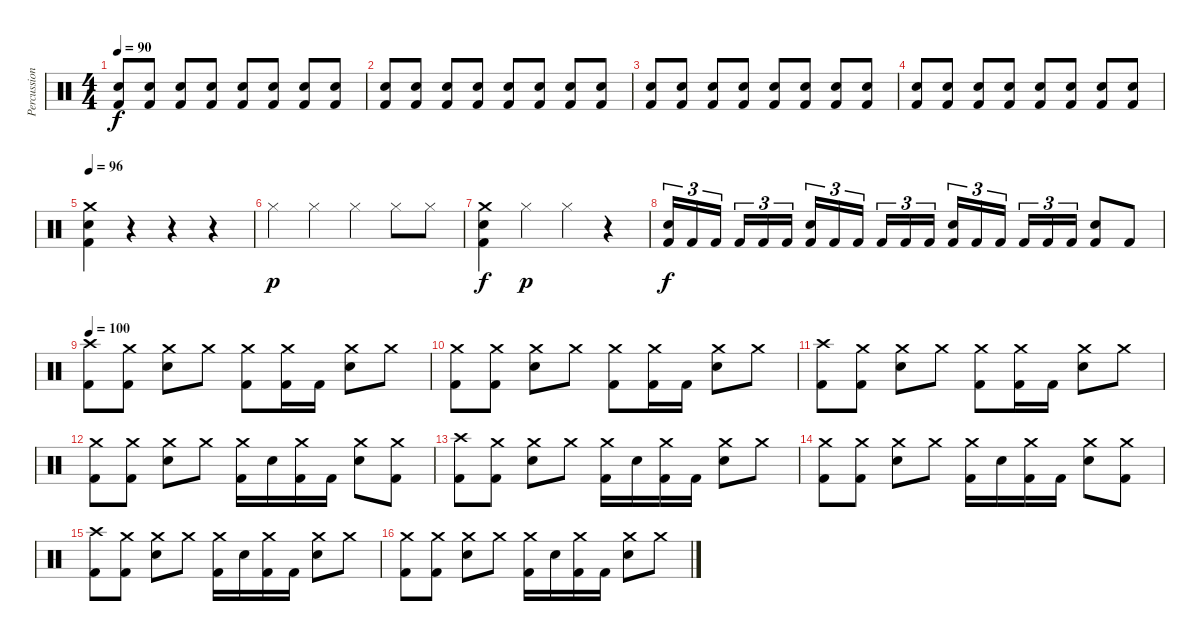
\track ("Percussion" "Percussion") {instrument percussion}
\staff {score}
\articulation defaults
\ts (4 4)
\tempo 90
\clef neutral
\ks c
("Kick (hit) 2" "Electric Snare (hit)").8{dy f} ("Kick (hit) 2" "Electric Snare (hit)").8 ("Kick (hit) 2" "Electric Snare (hit)").8 ("Kick (hit) 2" "Electric Snare (hit)").8 ("Kick (hit) 2" "Electric Snare (hit)").8 ("Kick (hit) 2" "Electric Snare (hit)").8 ("Kick (hit) 2" "Electric Snare (hit)").8 ("Kick (hit) 2" "Electric Snare (hit)").8 |
("Kick (hit) 2" "Electric Snare (hit)").8 ("Kick (hit) 2" "Electric Snare (hit)").8 ("Kick (hit) 2" "Electric Snare (hit)").8 ("Kick (hit) 2" "Electric Snare (hit)").8 ("Kick (hit) 2" "Electric Snare (hit)").8 ("Kick (hit) 2" "Electric Snare (hit)").8 ("Kick (hit) 2" "Electric Snare (hit)").8 ("Kick (hit) 2" "Electric Snare (hit)").8 |
("Kick (hit) 2" "Electric Snare (hit)").8 ("Kick (hit) 2" "Electric Snare (hit)").8 ("Kick (hit) 2" "Electric Snare (hit)").8 ("Kick (hit) 2" "Electric Snare (hit)").8 ("Kick (hit) 2" "Electric Snare (hit)").8 ("Kick (hit) 2" "Electric Snare (hit)").8 ("Kick (hit) 2" "Electric Snare (hit)").8 ("Kick (hit) 2" "Electric Snare (hit)").8 |
("Kick (hit) 2" "Electric Snare (hit)").8 ("Kick (hit) 2" "Electric Snare (hit)").8 ("Kick (hit) 2" "Electric Snare (hit)").8 ("Kick (hit) 2" "Electric Snare (hit)").8 ("Kick (hit) 2" "Electric Snare (hit)").8 ("Kick (hit) 2" "Electric Snare (hit)").8 ("Kick (hit) 2" "Electric Snare (hit)").8 ("Kick (hit) 2" "Electric Snare (hit)").8 |
\tempo 96
("Kick (hit) 2" "Electric Snare (hit)" "Crash medium (hit)").4 r.4 r.4 r.4 |
"Hi-Hat (closed)".4{dy p} "Hi-Hat (closed)".4 "Hi-Hat (closed)".4 "Hi-Hat (closed)".8 "Hi-Hat (closed)".8 |
("Kick (hit) 2" "Electric Snare (hit)" "Crash medium (hit)").4{dy f} "Hi-Hat (closed)".4{dy p} "Hi-Hat (closed)".4 r.4 |
("Kick (hit) 2" "Electric Snare (hit)").16{tu (3 2) dy f} "Kick (hit) 2".16{tu (3 2)} "Kick (hit) 2".16{tu (3 2)} "Kick (hit) 2".16{tu (3 2)} "Kick (hit) 2".16{tu (3 2)} "Kick (hit) 2".16{tu (3 2)} ("Kick (hit) 2" "Electric Snare (hit)").16{tu (3 2)} "Kick (hit) 2".16{tu (3 2)} "Kick (hit) 2".16{tu (3 2)} "Kick (hit) 2".16{tu (3 2)} "Kick (hit) 2".16{tu (3 2)} "Kick (hit) 2".16{tu (3 2)} ("Kick (hit) 2" "Electric Snare (hit)").16{tu (3 2)} "Kick (hit) 2".16{tu (3 2)} "Kick (hit) 2".16{tu (3 2)} "Kick (hit) 2".16{tu (3 2)} "Kick (hit) 2".16{tu (3 2)} "Kick (hit) 2".16{tu (3 2)} ("Kick (hit) 2" "Electric Snare (hit)").8 "Kick (hit) 2".8 |
\tempo 100
("Kick (hit) 2" "Crash high (hit)").8 ("Kick (hit) 2" "Crash medium (hit)").8 ("Electric Snare (hit)" "Crash medium (hit)").8 "Crash medium (hit)".8 ("Kick (hit) 2" "Crash medium (hit)").8 ("Kick (hit) 2" "Crash medium (hit)").16 "Kick (hit) 2".16 ("Electric Snare (hit)" "Crash medium (hit)").8 "Crash medium (hit)".8 |
("Kick (hit) 2" "Crash medium (hit)").8 ("Kick (hit) 2" "Crash medium (hit)").8 ("Electric Snare (hit)" "Crash medium (hit)").8 "Crash medium (hit)".8 ("Kick (hit) 2" "Crash medium (hit)").8 ("Kick (hit) 2" "Crash medium (hit)").16 "Kick (hit) 2".16 ("Electric Snare (hit)" "Crash medium (hit)").8 "Crash medium (hit)".8 |
("Kick (hit) 2" "Crash high (hit)").8 ("Kick (hit) 2" "Crash medium (hit)").8 ("Electric Snare (hit)" "Crash medium (hit)").8 "Crash medium (hit)".8 ("Kick (hit) 2" "Crash medium (hit)").8 ("Kick (hit) 2" "Crash medium (hit)").16 "Kick (hit) 2".16 ("Electric Snare (hit)" "Crash medium (hit)").8 "Crash medium (hit)".8 |
("Kick (hit) 2" "Crash medium (hit)").8 ("Kick (hit) 2" "Crash medium (hit)").8 ("Electric Snare (hit)" "Crash medium (hit)").8 "Crash medium (hit)".8 ("Kick (hit) 2" "Crash medium (hit)").16 "Electric Snare (hit)".16 ("Kick (hit) 2" "Crash medium (hit)").16 "Kick (hit) 2".16 ("Electric Snare (hit)" "Crash medium (hit)").8 ("Kick (hit) 2" "Crash medium (hit)").8 |
("Kick (hit) 2" "Crash high (hit)").8 ("Kick (hit) 2" "Crash medium (hit)").8 ("Electric Snare (hit)" "Crash medium (hit)").8 "Crash medium (hit)".8 ("Kick (hit) 2" "Crash medium (hit)").16 "Electric Snare (hit)".16 ("Kick (hit) 2" "Crash medium (hit)").16 "Kick (hit) 2".16 ("Electric Snare (hit)" "Crash medium (hit)").8 "Crash medium (hit)".8 |
("Kick (hit) 2" "Crash medium (hit)").8 ("Kick (hit) 2" "Crash medium (hit)").8 ("Electric Snare (hit)" "Crash medium (hit)").8 "Crash medium (hit)".8 ("Kick (hit) 2" "Crash medium (hit)").16 "Electric Snare (hit)".16 ("Kick (hit) 2" "Crash medium (hit)").16 "Kick (hit) 2".16 ("Electric Snare (hit)" "Crash medium (hit)").8 ("Kick (hit) 2" "Crash medium (hit)").8 |
("Kick (hit) 2" "Crash high (hit)").8 ("Kick (hit) 2" "Crash medium (hit)").8 ("Electric Snare (hit)" "Crash medium (hit)").8 "Crash medium (hit)".8 ("Kick (hit) 2" "Crash medium (hit)").16 "Electric Snare (hit)".16 ("Kick (hit) 2" "Crash medium (hit)").16 "Kick (hit) 2".16 ("Electric Snare (hit)" "Crash medium (hit)").8 "Crash medium (hit)".8 |
("Kick (hit) 2" "Crash medium (hit)").8 ("Kick (hit) 2" "Crash medium (hit)").8 ("Electric Snare (hit)" "Crash medium (hit)").8 "Crash medium (hit)".8 ("Kick (hit) 2" "Crash medium (hit)").16 "Electric Snare (hit)".16 ("Kick (hit) 2" "Crash medium (hit)").16 "Kick (hit) 2".16 ("Electric Snare (hit)" "Crash medium (hit)").8 "Crash medium (hit)".8
